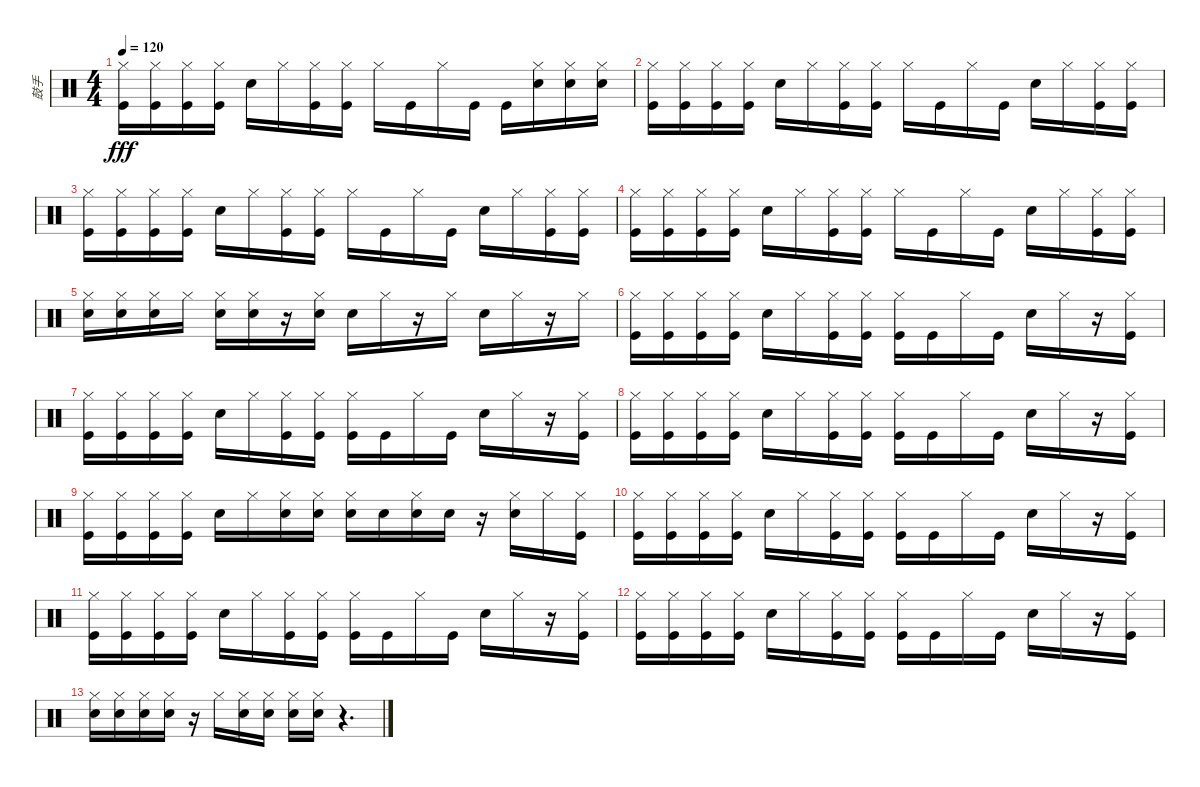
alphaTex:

\track ("鼓手" "鼓手") {instrument percussion}
\staff {score}
\articulation defaults
\ts (4 4)
\tempo 120
\clef neutral
\ks c
("Kick (hit)" "Hi-Hat (closed)").16{dy fff} ("Kick (hit)" "Hi-Hat (closed)").16 ("Kick (hit)" "Hi-Hat (closed)").16 ("Kick (hit)" "Hi-Hat (closed)").16 "Snare (hit) 2".16 "Hi-Hat (closed)".16 ("Kick (hit)" "Hi-Hat (closed)").16 ("Kick (hit)" "Hi-Hat (closed)").16 "Hi-Hat (closed)".16 "Kick (hit)".16 "Hi-Hat (closed)".16 "Kick (hit)".16 "Kick (hit)".16 ("Snare (hit) 2" "Hi-Hat (closed)").16 ("Snare (hit) 2" "Hi-Hat (closed)").16 ("Snare (hit) 2" "Hi-Hat (closed)").16 |
("Kick (hit)" "Hi-Hat (closed)").16 ("Kick (hit)" "Hi-Hat (closed)").16 ("Kick (hit)" "Hi-Hat (closed)").16 ("Kick (hit)" "Hi-Hat (closed)").16 "Snare (hit) 2".16 "Hi-Hat (closed)".16 ("Kick (hit)" "Hi-Hat (closed)").16 ("Kick (hit)" "Hi-Hat (closed)").16 "Hi-Hat (closed)".16 "Kick (hit)".16 "Hi-Hat (closed)".16 "Kick (hit)".16 "Snare (hit) 2".16 "Hi-Hat (closed)".16 ("Kick (hit)" "Hi-Hat (closed)").16 ("Kick (hit)" "Hi-Hat (closed)").16 |
("Kick (hit)" "Hi-Hat (closed)").16 ("Kick (hit)" "Hi-Hat (closed)").16 ("Kick (hit)" "Hi-Hat (closed)").16 ("Kick (hit)" "Hi-Hat (closed)").16 "Snare (hit) 2".16 "Hi-Hat (closed)".16 ("Kick (hit)" "Hi-Hat (closed)").16 ("Kick (hit)" "Hi-Hat (closed)").16 "Hi-Hat (closed)".16 "Kick (hit)".16 "Hi-Hat (closed)".16 "Kick (hit)".16 "Snare (hit) 2".16 "Hi-Hat (closed)".16 ("Kick (hit)" "Hi-Hat (closed)").16 ("Kick (hit)" "Hi-Hat (closed)").16 |
("Kick (hit)" "Hi-Hat (closed)").16 ("Kick (hit)" "Hi-Hat (closed)").16 ("Kick (hit)" "Hi-Hat (closed)").16 ("Kick (hit)" "Hi-Hat (closed)").16 "Snare (hit) 2".16 "Hi-Hat (closed)".16 ("Kick (hit)" "Hi-Hat (closed)").16 ("Kick (hit)" "Hi-Hat (closed)").16 "Hi-Hat (closed)".16 "Kick (hit)".16 "Hi-Hat (closed)".16 "Kick (hit)".16 "Snare (hit) 2".16 "Hi-Hat (closed)".16 ("Kick (hit)" "Hi-Hat (closed)").16 ("Kick (hit)" "Hi-Hat (closed)").16 |
("Snare (hit) 2" "Hi-Hat (closed)").16 ("Snare (hit) 2" "Hi-Hat (closed)").16 ("Snare (hit) 2" "Hi-Hat (closed)").16 "Hi-Hat (closed)".16 ("Snare (hit) 2" "Hi-Hat (closed)").16 ("Snare (hit) 2" "Hi-Hat (closed)").16 r.16 ("Snare (hit) 2" "Hi-Hat (closed)").16 "Snare (hit) 2".16 "Hi-Hat (closed)".16 r.16 "Hi-Hat (closed)".16 "Snare (hit) 2".16 "Hi-Hat (closed)".16 r.16 "Hi-Hat (closed)".16 |
("Kick (hit)" "Hi-Hat (closed)").16 ("Kick (hit)" "Hi-Hat (closed)").16 ("Kick (hit)" "Hi-Hat (closed)").16 ("Kick (hit)" "Hi-Hat (closed)").16 "Snare (hit) 2".16 "Hi-Hat (closed)".16 ("Kick (hit)" "Hi-Hat (closed)").16 ("Kick (hit)" "Hi-Hat (closed)").16 ("Kick (hit)" "Hi-Hat (closed)").16 "Kick (hit)".16 "Hi-Hat (closed)".16 "Kick (hit)".16 "Snare (hit) 2".16 "Hi-Hat (closed)".16 r.16 ("Kick (hit)" "Hi-Hat (closed)").16 |
("Kick (hit)" "Hi-Hat (closed)").16 ("Kick (hit)" "Hi-Hat (closed)").16 ("Kick (hit)" "Hi-Hat (closed)").16 ("Kick (hit)" "Hi-Hat (closed)").16 "Snare (hit) 2".16 "Hi-Hat (closed)".16 ("Kick (hit)" "Hi-Hat (closed)").16 ("Kick (hit)" "Hi-Hat (closed)").16 ("Kick (hit)" "Hi-Hat (closed)").16 "Kick (hit)".16 "Hi-Hat (closed)".16 "Kick (hit)".16 "Snare (hit) 2".16 "Hi-Hat (closed)".16 r.16 ("Kick (hit)" "Hi-Hat (closed)").16 |
("Kick (hit)" "Hi-Hat (closed)").16 ("Kick (hit)" "Hi-Hat (closed)").16 ("Kick (hit)" "Hi-Hat (closed)").16 ("Kick (hit)" "Hi-Hat (closed)").16 "Snare (hit) 2".16 "Hi-Hat (closed)".16 ("Kick (hit)" "Hi-Hat (closed)").16 ("Kick (hit)" "Hi-Hat (closed)").16 ("Kick (hit)" "Hi-Hat (closed)").16 "Kick (hit)".16 "Hi-Hat (closed)".16 "Kick (hit)".16 "Snare (hit) 2".16 "Hi-Hat (closed)".16 r.16 ("Kick (hit)" "Hi-Hat (closed)").16 |
("Kick (hit)" "Hi-Hat (closed)").16 ("Kick (hit)" "Hi-Hat (closed)").16 ("Kick (hit)" "Hi-Hat (closed)").16 ("Kick (hit)" "Hi-Hat (closed)").16 "Snare (hit) 2".16 "Hi-Hat (closed)".16 ("Snare (hit) 2" "Hi-Hat (closed)").16 ("Snare (hit) 2" "Hi-Hat (closed)").16 ("Snare (hit) 2" "Hi-Hat (closed)").16 "Snare (hit) 2".16 ("Snare (hit) 2" "Hi-Hat (closed)").16 "Snare (hit) 2".16 r.16 ("Snare (hit) 2" "Hi-Hat (closed)").16 "Hi-Hat (closed)".16 ("Kick (hit)" "Hi-Hat (closed)").16 |
("Kick (hit)" "Hi-Hat (closed)").16 ("Kick (hit)" "Hi-Hat (closed)").16 ("Kick (hit)" "Hi-Hat (closed)").16 ("Kick (hit)" "Hi-Hat (closed)").16 "Snare (hit) 2".16 "Hi-Hat (closed)".16 ("Kick (hit)" "Hi-Hat (closed)").16 ("Kick (hit)" "Hi-Hat (closed)").16 ("Kick (hit)" "Hi-Hat (closed)").16 "Kick (hit)".16 "Hi-Hat (closed)".16 "Kick (hit)".16 "Snare (hit) 2".16 "Hi-Hat (closed)".16 r.16 ("Kick (hit)" "Hi-Hat (closed)").16 |
("Kick (hit)" "Hi-Hat (closed)").16 ("Kick (hit)" "Hi-Hat (closed)").16 ("Kick (hit)" "Hi-Hat (closed)").16 ("Kick (hit)" "Hi-Hat (closed)").16 "Snare (hit) 2".16 "Hi-Hat (closed)".16 ("Kick (hit)" "Hi-Hat (closed)").16 ("Kick (hit)" "Hi-Hat (closed)").16 ("Kick (hit)" "Hi-Hat (closed)").16 "Kick (hit)".16 "Hi-Hat (closed)".16 "Kick (hit)".16 "Snare (hit) 2".16 "Hi-Hat (closed)".16 r.16 ("Kick (hit)" "Hi-Hat (closed)").16 |
("Kick (hit)" "Hi-Hat (closed)").16 ("Kick (hit)" "Hi-Hat (closed)").16 ("Kick (hit)" "Hi-Hat (closed)").16 ("Kick (hit)" "Hi-Hat (closed)").16 "Snare (hit) 2".16 "Hi-Hat (closed)".16 ("Kick (hit)" "Hi-Hat (closed)").16 ("Kick (hit)" "Hi-Hat (closed)").16 ("Kick (hit)" "Hi-Hat (closed)").16 "Kick (hit)".16 "Hi-Hat (closed)".16 "Kick (hit)".16 "Snare (hit) 2".16 "Hi-Hat (closed)".16 r.16 ("Kick (hit)" "Hi-Hat (closed)").16 |
("Snare (hit) 2" "Hi-Hat (closed)").16 ("Snare (hit) 2" "Hi-Hat (closed)").16 ("Snare (hit) 2" "Hi-Hat (closed)").16 ("Snare (hit) 2" "Hi-Hat (closed)").16 r.16 "Hi-Hat (closed)".16 ("Snare (hit) 2" "Hi-Hat (closed)").16 ("Snare (hit) 2" "Hi-Hat (closed)").16 ("Snare (hit) 2" "Hi-Hat (closed)").16 ("Snare (hit) 2" "Hi-Hat (closed)").16 r.4{d}
